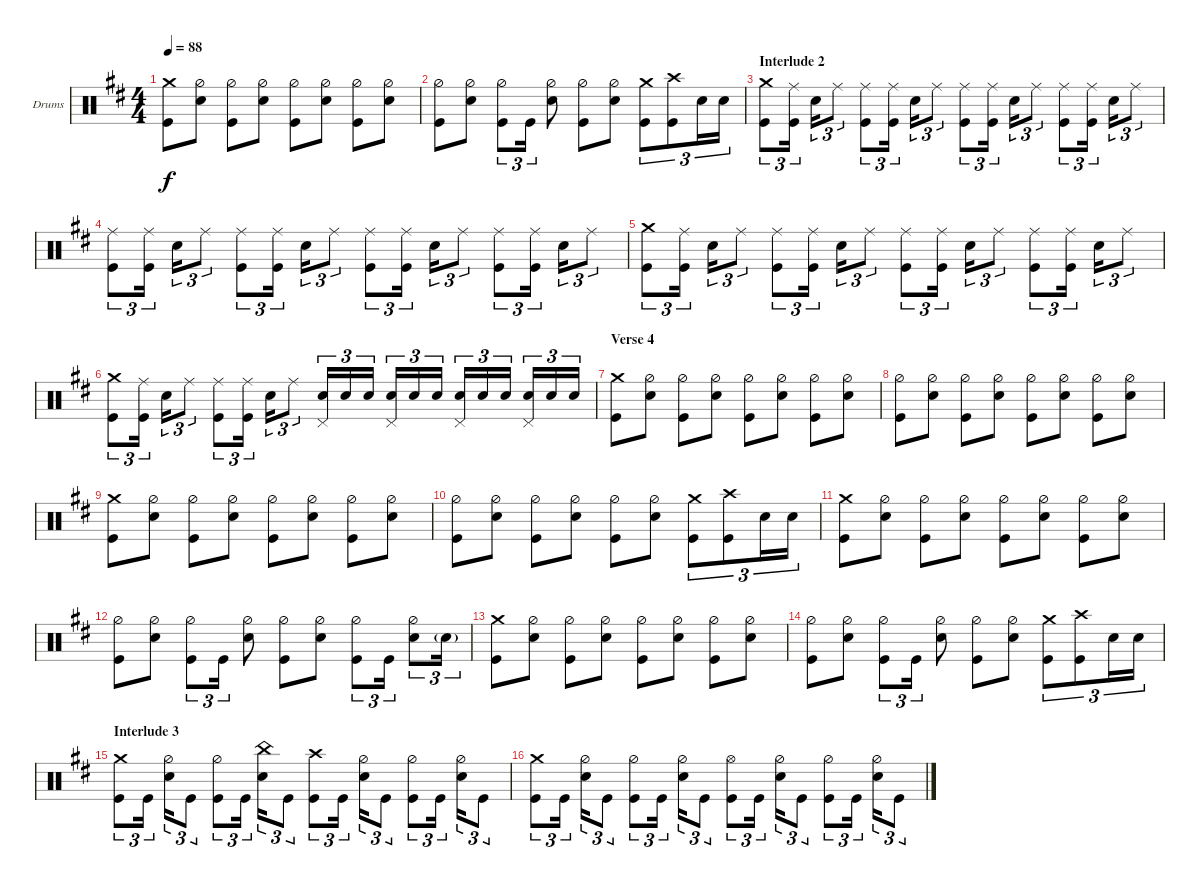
\defaultSystemsLayout 4
\bracketExtendMode groupsimilarinstruments
\firstSystemTrackNameOrientation horizontal
\otherSystemsTrackNameOrientation horizontal
\track ("Drumkit" "Drums") {instrument percussion}
\staff {score}
\articulation defaults
\ts (4 4)
\tempo 88
\clef neutral
\ks d
("Kick (hit)" "Crash medium (hit)").8{dy f} ("Hi-Hat (half)" "Snare (hit) 2").8 ("Hi-Hat (half)" "Kick (hit)").8 ("Hi-Hat (half)" "Snare (hit) 2").8 ("Hi-Hat (half)" "Kick (hit)").8 ("Hi-Hat (half)" "Snare (hit) 2").8 ("Hi-Hat (half)" "Kick (hit)").8 ("Hi-Hat (half)" "Snare (hit) 2").8 |
("Hi-Hat (half)" "Kick (hit)").8 ("Hi-Hat (half)" "Snare (hit) 2").8 ("Hi-Hat (half)" "Kick (hit)").8{tu (3 2)} "Kick (hit)".16{tu (3 2)} ("Hi-Hat (half)" "Snare (hit) 2").8 ("Hi-Hat (half)" "Kick (hit)").8 ("Hi-Hat (half)" "Snare (hit) 2").8 ("Kick (hit)" "Crash medium (hit)").8{tu (3 2)} ("Kick (hit)" "Crash high (hit)").8{tu (3 2)} "Snare (hit) 2".16{tu (3 2)} "Snare (hit) 2".16{tu (3 2)} |
\section ("" "Interlude 2")
("Kick (hit)" "Crash medium (hit)").8{tu (3 2)} ("Kick (hit)" "Ride (middle)").16{tu (3 2)} "Snare (hit) 2".16{tu (3 2)} "Ride (middle)".8{tu (3 2)} ("Kick (hit)" "Ride (middle)").8{tu (3 2)} ("Kick (hit)" "Ride (middle)").16{tu (3 2)} "Snare (hit) 2".16{tu (3 2)} "Ride (middle)".8{tu (3 2)} ("Kick (hit)" "Ride (middle)").8{tu (3 2)} ("Kick (hit)" "Ride (middle)").16{tu (3 2)} "Snare (hit) 2".16{tu (3 2)} "Ride (middle)".8{tu (3 2)} ("Kick (hit)" "Ride (middle)").8{tu (3 2)} ("Kick (hit)" "Ride (middle)").16{tu (3 2)} "Snare (hit) 2".16{tu (3 2)} "Ride (middle)".8{tu (3 2)} |
("Kick (hit)" "Ride (middle)").8{tu (3 2)} ("Kick (hit)" "Ride (middle)").16{tu (3 2)} "Snare (hit) 2".16{tu (3 2)} "Ride (middle)".8{tu (3 2)} ("Kick (hit)" "Ride (middle)").8{tu (3 2)} ("Kick (hit)" "Ride (middle)").16{tu (3 2)} "Snare (hit) 2".16{tu (3 2)} "Ride (middle)".8{tu (3 2)} ("Kick (hit)" "Ride (middle)").8{tu (3 2)} ("Kick (hit)" "Ride (middle)").16{tu (3 2)} "Snare (hit) 2".16{tu (3 2)} "Ride (middle)".8{tu (3 2)} ("Kick (hit)" "Ride (middle)").8{tu (3 2)} ("Kick (hit)" "Ride (middle)").16{tu (3 2)} "Snare (hit) 2".16{tu (3 2)} "Ride (middle)".8{tu (3 2)} |
("Kick (hit)" "Crash medium (hit)").8{tu (3 2)} ("Kick (hit)" "Ride (middle)").16{tu (3 2)} "Snare (hit) 2".16{tu (3 2)} "Ride (middle)".8{tu (3 2)} ("Kick (hit)" "Ride (middle)").8{tu (3 2)} ("Kick (hit)" "Ride (middle)").16{tu (3 2)} "Snare (hit) 2".16{tu (3 2)} "Ride (middle)".8{tu (3 2)} ("Kick (hit)" "Ride (middle)").8{tu (3 2)} ("Kick (hit)" "Ride (middle)").16{tu (3 2)} "Snare (hit) 2".16{tu (3 2)} "Ride (middle)".8{tu (3 2)} ("Kick (hit)" "Ride (middle)").8{tu (3 2)} ("Kick (hit)" "Ride (middle)").16{tu (3 2)} "Snare (hit) 2".16{tu (3 2)} "Ride (middle)".8{tu (3 2)} |
("Kick (hit)" "Crash medium (hit)").8{tu (3 2)} ("Kick (hit)" "Ride (middle)").16{tu (3 2)} "Snare (hit) 2".16{tu (3 2)} "Ride (middle)".8{tu (3 2)} ("Kick (hit)" "Ride (middle)").8{tu (3 2)} ("Kick (hit)" "Ride (middle)").16{tu (3 2)} "Snare (hit) 2".16{tu (3 2)} "Ride (middle)".8{tu (3 2)} ("Snare (hit) 2" "Pedal Hi-Hat (hit)").16{tu (3 2)} "Snare (hit) 2".16{tu (3 2)} "Snare (hit) 2".16{tu (3 2)} ("Snare (hit) 2" "Pedal Hi-Hat (hit)").16{tu (3 2)} "Snare (hit) 2".16{tu (3 2)} "Snare (hit) 2".16{tu (3 2)} ("Snare (hit) 2" "Pedal Hi-Hat (hit)").16{tu (3 2)} "Snare (hit) 2".16{tu (3 2)} "Snare (hit) 2".16{tu (3 2)} ("Snare (hit) 2" "Pedal Hi-Hat (hit)").16{tu (3 2)} "Snare (hit) 2".16{tu (3 2)} "Snare (hit) 2".16{tu (3 2)} |
\section ("" "Verse 4")
("Kick (hit)" "Crash medium (hit)").8 ("Hi-Hat (half)" "Snare (hit) 2").8 ("Hi-Hat (half)" "Kick (hit)").8 ("Hi-Hat (half)" "Snare (hit) 2").8 ("Hi-Hat (half)" "Kick (hit)").8 ("Hi-Hat (half)" "Snare (hit) 2").8 ("Hi-Hat (half)" "Kick (hit)").8 ("Hi-Hat (half)" "Snare (hit) 2").8 |
("Hi-Hat (half)" "Kick (hit)").8 ("Hi-Hat (half)" "Snare (hit) 2").8 ("Hi-Hat (half)" "Kick (hit)").8 ("Hi-Hat (half)" "Snare (hit) 2").8 ("Hi-Hat (half)" "Kick (hit)").8 ("Hi-Hat (half)" "Snare (hit) 2").8 ("Hi-Hat (half)" "Kick (hit)").8 ("Hi-Hat (half)" "Snare (hit) 2").8 |
("Kick (hit)" "Crash medium (hit)").8 ("Hi-Hat (half)" "Snare (hit) 2").8 ("Hi-Hat (half)" "Kick (hit)").8 ("Hi-Hat (half)" "Snare (hit) 2").8 ("Hi-Hat (half)" "Kick (hit)").8 ("Hi-Hat (half)" "Snare (hit) 2").8 ("Hi-Hat (half)" "Kick (hit)").8 ("Hi-Hat (half)" "Snare (hit) 2").8 |
("Hi-Hat (half)" "Kick (hit)").8 ("Hi-Hat (half)" "Snare (hit) 2").8 ("Hi-Hat (half)" "Kick (hit)").8 ("Hi-Hat (half)" "Snare (hit) 2").8 ("Hi-Hat (half)" "Kick (hit)").8 ("Hi-Hat (half)" "Snare (hit) 2").8 ("Kick (hit)" "Crash medium (hit)").8{tu (3 2)} ("Kick (hit)" "Crash high (hit)").8{tu (3 2)} "Snare (hit) 2".16{tu (3 2)} "Snare (hit) 2".16{tu (3 2)} |
("Kick (hit)" "Crash medium (hit)").8 ("Hi-Hat (half)" "Snare (hit) 2").8 ("Hi-Hat (half)" "Kick (hit)").8 ("Hi-Hat (half)" "Snare (hit) 2").8 ("Hi-Hat (half)" "Kick (hit)").8 ("Hi-Hat (half)" "Snare (hit) 2").8 ("Hi-Hat (half)" "Kick (hit)").8 ("Hi-Hat (half)" "Snare (hit) 2").8 |
("Hi-Hat (half)" "Kick (hit)").8 ("Hi-Hat (half)" "Snare (hit) 2").8 ("Hi-Hat (half)" "Kick (hit)").8{tu (3 2)} "Kick (hit)".16{tu (3 2)} ("Hi-Hat (half)" "Snare (hit) 2").8 ("Hi-Hat (half)" "Kick (hit)").8 ("Hi-Hat (half)" "Snare (hit) 2").8 ("Hi-Hat (half)" "Kick (hit)").8{tu (3 2)} "Kick (hit)".16{tu (3 2)} ("Hi-Hat (half)" "Snare (hit) 2").8{tu (3 2)} "Snare (hit) 2"{g}.16{tu (3 2)} |
("Kick (hit)" "Crash medium (hit)").8 ("Hi-Hat (half)" "Snare (hit) 2").8 ("Hi-Hat (half)" "Kick (hit)").8 ("Hi-Hat (half)" "Snare (hit) 2").8 ("Hi-Hat (half)" "Kick (hit)").8 ("Hi-Hat (half)" "Snare (hit) 2").8 ("Hi-Hat (half)" "Kick (hit)").8 ("Hi-Hat (half)" "Snare (hit) 2").8 |
("Hi-Hat (half)" "Kick (hit)").8 ("Hi-Hat (half)" "Snare (hit) 2").8 ("Hi-Hat (half)" "Kick (hit)").8{tu (3 2)} "Kick (hit)".16{tu (3 2)} ("Hi-Hat (half)" "Snare (hit) 2").8 ("Hi-Hat (half)" "Kick (hit)").8 ("Hi-Hat (half)" "Snare (hit) 2").8 ("Kick (hit)" "Crash medium (hit)").8{tu (3 2)} ("Kick (hit)" "Crash high (hit)").8{tu (3 2)} "Snare (hit) 2".16{tu (3 2)} "Snare (hit) 2".16{tu (3 2)} |
\section ("" "Interlude 3")
("Kick (hit)" "Crash medium (hit)").8{tu (3 2)} "Kick (hit)".16{tu (3 2)} ("Snare (hit) 2" "Hi-Hat (half)").16{tu (3 2)} "Kick (hit)".8{tu (3 2)} ("Kick (hit)" "Hi-Hat (half)").8{tu (3 2)} "Kick (hit)".16{tu (3 2)} ("Snare (hit) 2" "China (hit)").16{tu (3 2)} "Kick (hit)".8{tu (3 2)} ("Kick (hit)" "Crash high (hit)").8{tu (3 2)} "Kick (hit)".16{tu (3 2)} ("Snare (hit) 2" "Hi-Hat (half)").16{tu (3 2)} "Kick (hit)".8{tu (3 2)} ("Kick (hit)" "Hi-Hat (half)").8{tu (3 2)} "Kick (hit)".16{tu (3 2)} ("Snare (hit) 2" "Hi-Hat (half)").16{tu (3 2)} "Kick (hit)".8{tu (3 2)} |
("Kick (hit)" "Crash medium (hit)").8{tu (3 2)} "Kick (hit)".16{tu (3 2)} ("Snare (hit) 2" "Hi-Hat (half)").16{tu (3 2)} "Kick (hit)".8{tu (3 2)} ("Kick (hit)" "Hi-Hat (half)").8{tu (3 2)} "Kick (hit)".16{tu (3 2)} ("Snare (hit) 2" "Hi-Hat (half)").16{tu (3 2)} "Kick (hit)".8{tu (3 2)} ("Kick (hit)" "Hi-Hat (open)").8{tu (3 2)} "Kick (hit)".16{tu (3 2)} ("Snare (hit) 2" "Hi-Hat (half)").16{tu (3 2)} "Kick (hit)".8{tu (3 2)} ("Kick (hit)" "Hi-Hat (half)").8{tu (3 2)} "Kick (hit)".16{tu (3 2)} ("Snare (hit) 2" "Hi-Hat (half)").16{tu (3 2)} "Kick (hit)".8{tu (3 2)}
